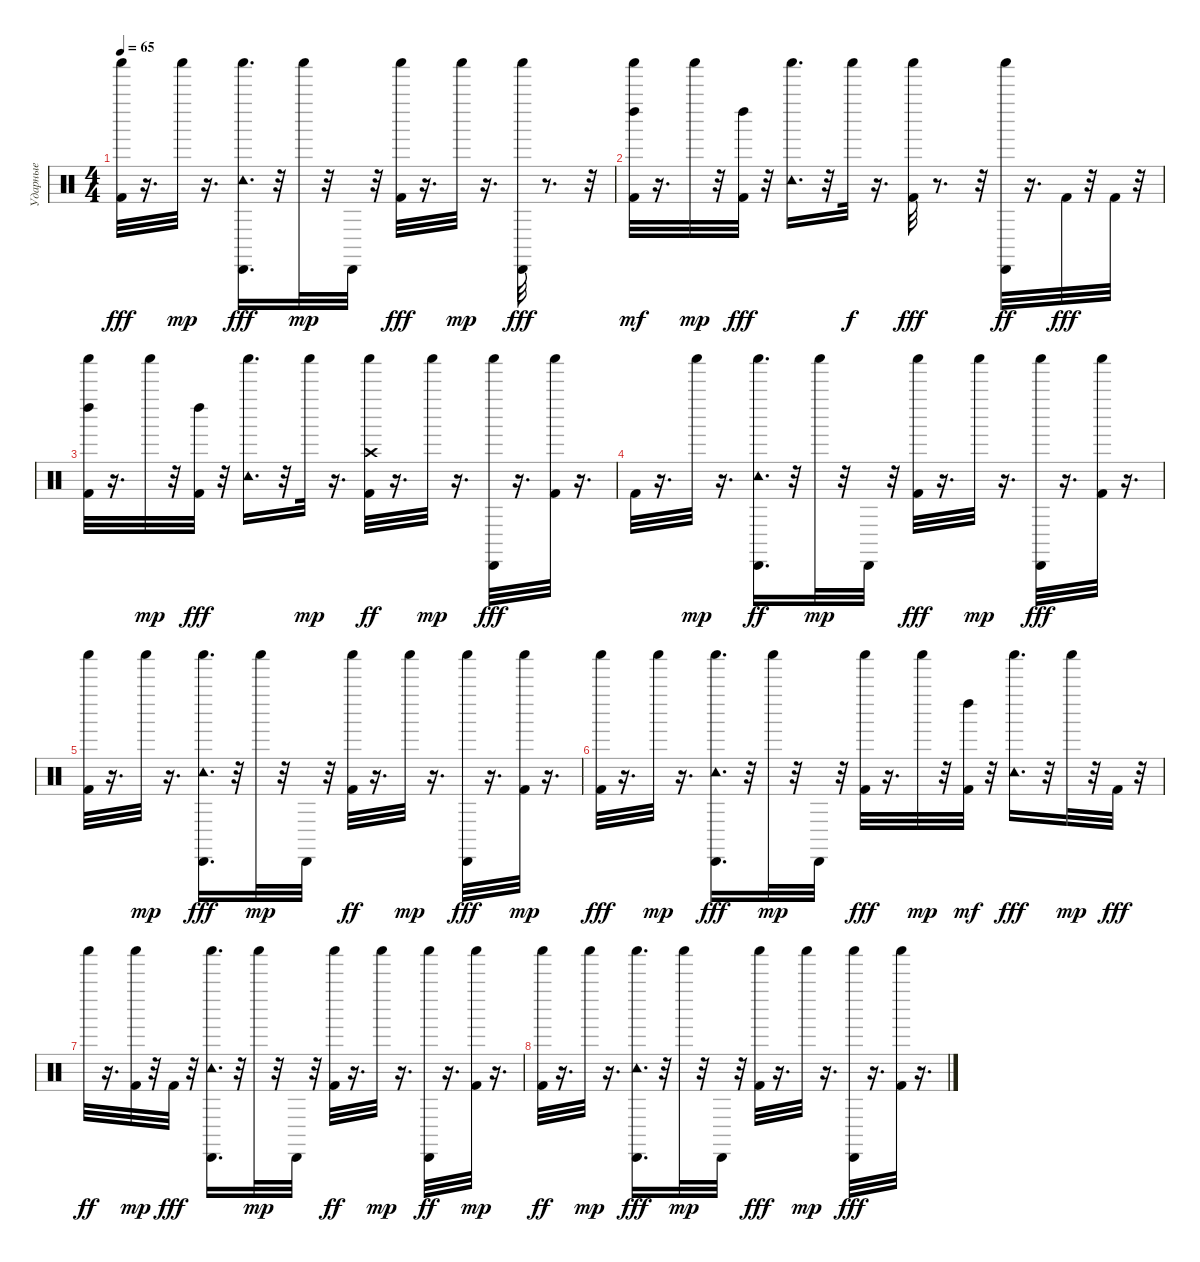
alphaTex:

\track ("Ударные" "Ударные") {instrument percussion}
\staff {score}
\articulation defaults
\ts (4 4)
\tempo 65
\clef neutral
\ks c
("Shaker (hit)" "Kick (hit) 2").32{dy fff} r.16{d} "Shaker (hit)".32{dy mp} r.16{d} ("Shaker (hit)" "Cabasa (hit)" "Tambourine (hit)").16{d dy fff} r.32 "Shaker (hit)".32{dy mp} r.32 "Cabasa (hit)".32 r.32 ("Shaker (hit)" "Kick (hit) 2").32{dy fff} r.16{d} "Shaker (hit)".32{dy mp} r.16{d} ("Cabasa (hit)" "Shaker (hit)").32{dy fff} r.8{d} r.32 |
("Kick (hit) 2" "Shaker (hit)" "Left Maraca (hit)").32{dy mf} r.16{d} "Shaker (hit)".32{dy mp} r.32 ("Left Maraca (hit)" "Kick (hit) 2").32{dy fff} r.32 ("Shaker (hit)" "Tambourine (hit)").16{d} r.32 "Shaker (hit)".32{dy f} r.16{d} ("Shaker (hit)" "Kick (hit) 2").32{dy fff} r.8{d} r.32 ("Shaker (hit)" "Cabasa (hit)").32{dy ff} r.16{d} "Kick (hit) 2".32{dy fff} r.32 "Kick (hit) 2".32 r.32 |
("Left Maraca (hit)" "Shaker (hit)" "Kick (hit) 2").32 r.16{d} "Shaker (hit)".32{dy mp} r.32 ("Left Maraca (hit)" "Kick (hit) 2").32{dy fff} r.32 ("Shaker (hit)" "Tambourine (hit)").16{d} r.32 "Shaker (hit)".32{dy mp} r.16{d} ("Kick (hit) 2" "Crash high (hit)" "Shaker (hit)").32{dy ff} r.16{d} "Shaker (hit)".32{dy mp} r.16{d} ("Cabasa (hit)" "Shaker (hit)").32{dy fff} r.16{d} ("Shaker (hit)" "Kick (hit) 2").32 r.16{d} |
"Kick (hit) 2".32 r.16{d} "Shaker (hit)".32{dy mp} r.16{d} ("Shaker (hit)" "Tambourine (hit)" "Cabasa (hit)").16{d dy ff} r.32 "Shaker (hit)".32{dy mp} r.32 "Cabasa (hit)".32 r.32 ("Shaker (hit)" "Kick (hit) 2").32{dy fff} r.16{d} "Shaker (hit)".32{dy mp} r.16{d} ("Shaker (hit)" "Cabasa (hit)").32{dy fff} r.16{d} ("Shaker (hit)" "Kick (hit) 2").32 r.16{d} |
("Shaker (hit)" "Kick (hit) 2").32 r.16{d} "Shaker (hit)".32{dy mp} r.16{d} ("Shaker (hit)" "Cabasa (hit)" "Tambourine (hit)").16{d dy fff} r.32 "Shaker (hit)".32{dy mp} r.32 "Cabasa (hit)".32 r.32 ("Kick (hit) 2" "Shaker (hit)").32{dy ff} r.16{d} "Shaker (hit)".32{dy mp} r.16{d} ("Cabasa (hit)" "Shaker (hit)").32{dy fff} r.16{d} ("Kick (hit) 2" "Shaker (hit)").32{dy mp} r.16{d} |
("Shaker (hit)" "Kick (hit) 2").32{dy fff} r.16{d} "Shaker (hit)".32{dy mp} r.16{d} ("Shaker (hit)" "Cabasa (hit)" "Tambourine (hit)").16{d dy fff} r.32 "Shaker (hit)".32{dy mp} r.32 "Cabasa (hit)".32 r.32 ("Shaker (hit)" "Kick (hit) 2").32{dy fff} r.16{d} "Shaker (hit)".32{dy mp} r.32 ("Kick (hit) 2" "Left Maraca (hit)").32{dy mf} r.32 ("Tambourine (hit)" "Shaker (hit)").16{d dy fff} r.32 "Shaker (hit)".32{dy mp} r.32 "Kick (hit) 2".32{dy fff} r.32 |
"Shaker (hit)".32{dy ff} r.16{d} ("Kick (hit) 2" "Shaker (hit)").32{dy mp} r.32 "Kick (hit) 2".32{dy fff} r.32 ("Shaker (hit)" "Cabasa (hit)" "Tambourine (hit)").16{d} r.32 "Shaker (hit)".32{dy mp} r.32 "Cabasa (hit)".32 r.32 ("Kick (hit) 2" "Shaker (hit)").32{dy ff} r.16{d} "Shaker (hit)".32{dy mp} r.16{d} ("Shaker (hit)" "Cabasa (hit)").32{dy ff} r.16{d} ("Kick (hit) 2" "Shaker (hit)").32{dy mp} r.16{d} |
("Kick (hit) 2" "Shaker (hit)").32{dy ff} r.16{d} "Shaker (hit)".32{dy mp} r.16{d} ("Shaker (hit)" "Cabasa (hit)" "Tambourine (hit)").16{d dy fff} r.32 "Shaker (hit)".32{dy mp} r.32 "Cabasa (hit)".32 r.32 ("Shaker (hit)" "Kick (hit) 2").32{dy fff} r.16{d} "Shaker (hit)".32{dy mp} r.16{d} ("Shaker (hit)" "Cabasa (hit)").32{dy fff} r.16{d} ("Shaker (hit)" "Kick (hit) 2").32 r.16{d}
